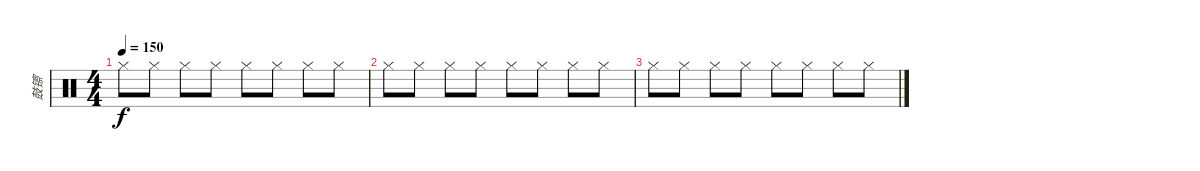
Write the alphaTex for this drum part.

\track ("鼓镲" "鼓镲") {instrument percussion}
\staff {score}
\articulation defaults
\ts (4 4)
\tempo 150
\clef neutral
\ks c "Hi-Hat (closed)".8{dy f} "Hi-Hat (closed)".8 "Hi-Hat (closed)".8 "Hi-Hat (closed)".8 "Hi-Hat (closed)".8 "Hi-Hat (closed)".8 "Hi-Hat (closed)".8 "Hi-Hat (closed)".8
|
"Hi-Hat (closed)".8 "Hi-Hat (closed)".8 "Hi-Hat (closed)".8 "Hi-Hat (closed)".8 "Hi-Hat (closed)".8 "Hi-Hat (closed)".8 "Hi-Hat (closed)".8 "Hi-Hat (closed)".8 |
"Hi-Hat (closed)".8 "Hi-Hat (closed)".8 "Hi-Hat (closed)".8 "Hi-Hat (closed)".8 "Hi-Hat (closed)".8 "Hi-Hat (closed)".8 "Hi-Hat (closed)".8 "Hi-Hat (closed)".8
